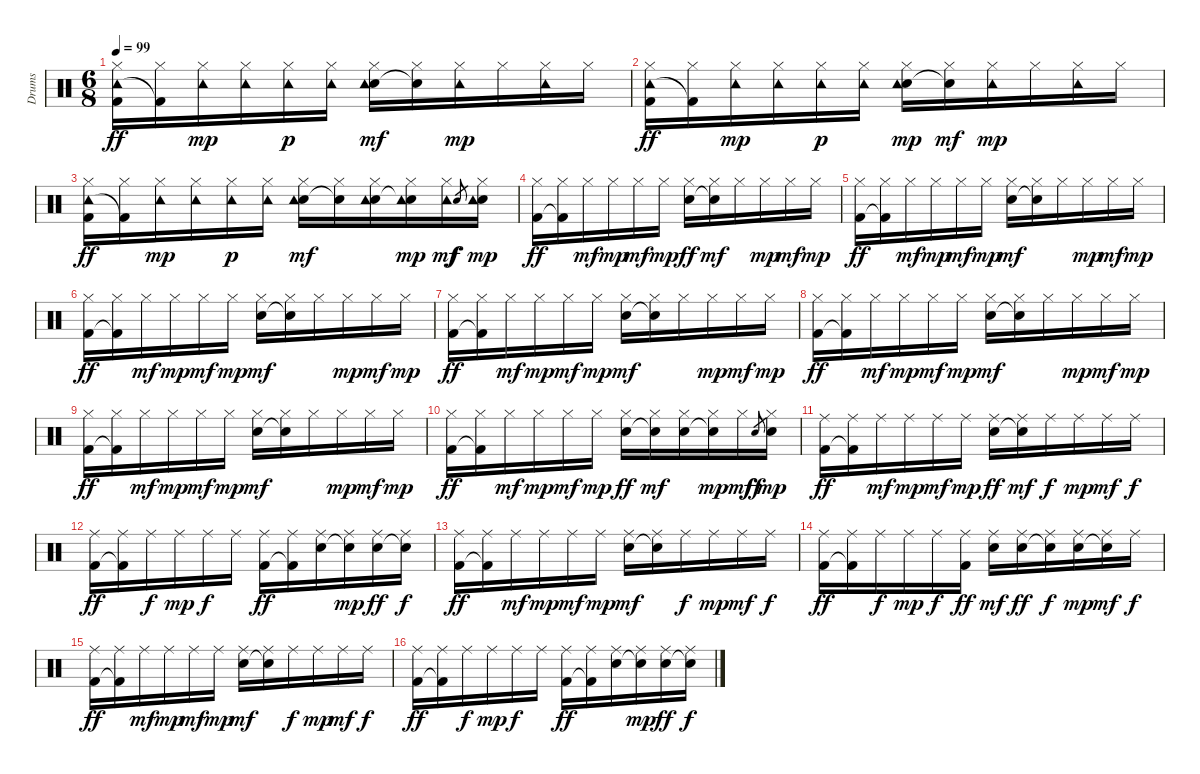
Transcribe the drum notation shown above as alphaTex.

\track ("Drums" "Drums") {instrument percussion}
\staff {score}
\articulation defaults
\ts (6 8)
\tempo 99
\clef neutral
\ks c
("Hi-Hat (closed)" "Tambourine (hit)" "Kick (hit) 2").16{dy ff} ("Hi-Hat (closed)" "Kick (hit) 2"{t}).16 ("Hi-Hat (closed)" "Tambourine (hit)").16{dy mp} ("Hi-Hat (closed)" "Tambourine (hit)").16 ("Hi-Hat (closed)" "Tambourine (hit)").16{dy p} ("Hi-Hat (closed)" "Tambourine (hit)").16 ("Hi-Hat (closed)" "Snare (hit) 2" "Tambourine (hit)").16{dy mf} ("Hi-Hat (closed)" "Snare (hit) 2"{t}).16 ("Hi-Hat (closed)" "Tambourine (hit)").16{dy mp} "Hi-Hat (closed)".16 ("Hi-Hat (closed)" "Tambourine (hit)").16 "Hi-Hat (closed)".16 |
("Hi-Hat (closed)" "Tambourine (hit)" "Kick (hit) 2").16{dy ff} ("Hi-Hat (closed)" "Kick (hit) 2"{t}).16 ("Hi-Hat (closed)" "Tambourine (hit)").16{dy mp} ("Hi-Hat (closed)" "Tambourine (hit)").16 ("Hi-Hat (closed)" "Tambourine (hit)").16{dy p} ("Hi-Hat (closed)" "Tambourine (hit)").16 ("Hi-Hat (closed)" "Snare (hit) 2" "Tambourine (hit)").16{dy mp} ("Hi-Hat (closed)" "Snare (hit) 2"{t}).16{dy mf} ("Hi-Hat (closed)" "Tambourine (hit)").16{dy mp} "Hi-Hat (closed)".16 ("Hi-Hat (closed)" "Tambourine (hit)").16 "Hi-Hat (closed)".16 |
("Hi-Hat (closed)" "Tambourine (hit)" "Kick (hit) 2").16{dy ff} ("Hi-Hat (closed)" "Kick (hit) 2"{t}).16 ("Hi-Hat (closed)" "Tambourine (hit)").16{dy mp} ("Hi-Hat (closed)" "Tambourine (hit)").16 ("Hi-Hat (closed)" "Tambourine (hit)").16{dy p} ("Hi-Hat (closed)" "Tambourine (hit)").16 ("Hi-Hat (closed)" "Snare (hit) 2" "Tambourine (hit)").16{dy mf} ("Hi-Hat (closed)" "Snare (hit) 2"{t}).16 ("Hi-Hat (closed)" "Snare (hit) 2" "Tambourine (hit)").16 ("Hi-Hat (closed)" "Snare (hit) 2"{t} "Tambourine (hit)").16{dy mp} ("Hi-Hat (closed)" "Tambourine (hit)").16{dy mf} "Electric Snare (hit)".8{gr dy f} ("Hi-Hat (closed)" "Electric Snare (hit)" "Tambourine (hit)").16{dy mp} |
("Hi-Hat (closed)" "Kick (hit) 2").16{dy ff} ("Hi-Hat (closed)" "Kick (hit) 2"{t}).16 "Hi-Hat (closed)".16{dy mf} "Hi-Hat (closed)".16{dy mp} "Hi-Hat (closed)".16{dy mf} "Hi-Hat (closed)".16{dy mp} ("Hi-Hat (closed)" "Electric Snare (hit)").16{dy ff} ("Hi-Hat (closed)" "Snare (hit) 2"{t}).16{dy mf} "Hi-Hat (closed)".16 "Hi-Hat (closed)".16{dy mp} "Hi-Hat (closed)".16{dy mf} "Hi-Hat (closed)".16{dy mp} |
("Hi-Hat (closed)" "Kick (hit) 2").16{dy ff} ("Hi-Hat (closed)" "Kick (hit) 2"{t}).16 "Hi-Hat (closed)".16{dy mf} "Hi-Hat (closed)".16{dy mp} "Hi-Hat (closed)".16{dy mf} "Hi-Hat (closed)".16{dy mp} ("Hi-Hat (closed)" "Snare (hit) 2").16{dy mf} ("Hi-Hat (closed)" "Snare (hit) 2"{t}).16 "Hi-Hat (closed)".16 "Hi-Hat (closed)".16{dy mp} "Hi-Hat (closed)".16{dy mf} "Hi-Hat (closed)".16{dy mp} |
("Hi-Hat (closed)" "Kick (hit) 2").16{dy ff} ("Hi-Hat (closed)" "Kick (hit) 2"{t}).16 "Hi-Hat (closed)".16{dy mf} "Hi-Hat (closed)".16{dy mp} "Hi-Hat (closed)".16{dy mf} "Hi-Hat (closed)".16{dy mp} ("Hi-Hat (closed)" "Snare (hit) 2").16{dy mf} ("Hi-Hat (closed)" "Snare (hit) 2"{t}).16 "Hi-Hat (closed)".16 "Hi-Hat (closed)".16{dy mp} "Hi-Hat (closed)".16{dy mf} "Hi-Hat (closed)".16{dy mp} |
("Hi-Hat (closed)" "Kick (hit) 2").16{dy ff} ("Hi-Hat (closed)" "Kick (hit) 2"{t}).16 "Hi-Hat (closed)".16{dy mf} "Hi-Hat (closed)".16{dy mp} "Hi-Hat (closed)".16{dy mf} "Hi-Hat (closed)".16{dy mp} ("Hi-Hat (closed)" "Snare (hit) 2").16{dy mf} ("Hi-Hat (closed)" "Snare (hit) 2"{t}).16 "Hi-Hat (closed)".16 "Hi-Hat (closed)".16{dy mp} "Hi-Hat (closed)".16{dy mf} "Hi-Hat (closed)".16{dy mp} |
("Hi-Hat (closed)" "Kick (hit) 2").16{dy ff} ("Hi-Hat (closed)" "Kick (hit) 2"{t}).16 "Hi-Hat (closed)".16{dy mf} "Hi-Hat (closed)".16{dy mp} "Hi-Hat (closed)".16{dy mf} "Hi-Hat (closed)".16{dy mp} ("Hi-Hat (closed)" "Snare (hit) 2").16{dy mf} ("Hi-Hat (closed)" "Snare (hit) 2"{t}).16 "Hi-Hat (closed)".16 "Hi-Hat (closed)".16{dy mp} "Hi-Hat (closed)".16{dy mf} "Hi-Hat (closed)".16{dy mp} |
("Hi-Hat (closed)" "Kick (hit) 2").16{dy ff} ("Hi-Hat (closed)" "Kick (hit) 2"{t}).16 "Hi-Hat (closed)".16{dy mf} "Hi-Hat (closed)".16{dy mp} "Hi-Hat (closed)".16{dy mf} "Hi-Hat (closed)".16{dy mp} ("Hi-Hat (closed)" "Snare (hit) 2").16{dy mf} ("Hi-Hat (closed)" "Snare (hit) 2"{t}).16 "Hi-Hat (closed)".16 "Hi-Hat (closed)".16{dy mp} "Hi-Hat (closed)".16{dy mf} "Hi-Hat (closed)".16{dy mp} |
("Hi-Hat (closed)" "Kick (hit) 2").16{dy ff} ("Hi-Hat (closed)" "Kick (hit) 2"{t}).16 "Hi-Hat (closed)".16{dy mf} "Hi-Hat (closed)".16{dy mp} "Hi-Hat (closed)".16{dy mf} "Hi-Hat (closed)".16{dy mp} ("Hi-Hat (closed)" "Electric Snare (hit)").16{dy ff} ("Hi-Hat (closed)" "Snare (hit) 2"{t}).16{dy mf} ("Hi-Hat (closed)" "Electric Snare (hit)").16 ("Hi-Hat (closed)" "Snare (hit) 2"{t}).16{dy mp} "Hi-Hat (closed)".16{dy mf} "Electric Snare (hit)".8{gr dy ff} ("Hi-Hat (closed)" "Electric Snare (hit)").16{dy mp} |
("Ride (middle)" "Kick (hit) 2").16{dy ff} ("Ride (middle)" "Kick (hit) 2"{t}).16 "Ride (middle)".16{dy mf} "Ride (middle)".16{dy mp} "Ride (middle)".16{dy mf} "Ride (middle)".16{dy mp} ("Ride (middle)" "Electric Snare (hit)").16{dy ff} ("Ride (middle)" "Snare (hit) 2"{t}).16{dy mf} "Ride (middle)".16{dy f} "Ride (middle)".16{dy mp} "Ride (middle)".16{dy mf} "Ride (middle)".16{dy f} |
("Ride (middle)" "Kick (hit) 2").16{dy ff} ("Ride (middle)" "Kick (hit) 2"{t}).16 "Ride (middle)".16{dy f} "Ride (middle)".16{dy mp} "Ride (middle)".16{dy f} "Ride (middle)".16 ("Ride (middle)" "Kick (hit) 2").16{dy ff} ("Ride (middle)" "Kick (hit) 2"{t}).16 ("Ride (middle)" "Electric Snare (hit)").16 ("Ride (middle)" "Snare (hit) 2"{t}).16{dy mp} ("Ride (middle)" "Electric Snare (hit)").16{dy ff} ("Ride (middle)" "Electric Snare (hit)"{t}).16{dy f} |
("Ride (middle)" "Kick (hit) 2").16{dy ff} ("Ride (middle)" "Kick (hit) 2"{t}).16 "Ride (middle)".16{dy mf} "Ride (middle)".16{dy mp} "Ride (middle)".16{dy mf} "Ride (middle)".16{dy mp} ("Ride (middle)" "Snare (hit) 2").16{dy mf} ("Ride (middle)" "Snare (hit) 2"{t}).16 "Ride (middle)".16{dy f} "Ride (middle)".16{dy mp} "Ride (middle)".16{dy mf} "Ride (middle)".16{dy f} |
("Ride (middle)" "Kick (hit) 2").16{dy ff} ("Ride (middle)" "Kick (hit) 2"{t}).16 "Ride (middle)".16{dy f} "Ride (middle)".16{dy mp} "Ride (middle)".16{dy f} ("Ride (middle)" "Kick (hit) 2").16{dy ff} ("Ride (middle)" "Electric Snare (hit)").16{dy mf} ("Ride (middle)" "Electric Snare (hit)").16{dy ff} ("Ride (middle)" "Electric Snare (hit)"{t}).16{dy f} ("Ride (middle)" "Electric Snare (hit)").16{dy mp} ("Ride (middle)" "Electric Snare (hit)"{t}).16{dy mf} "Ride (middle)".16{dy f} |
("Ride (middle)" "Kick (hit) 2").16{dy ff} ("Ride (middle)" "Kick (hit) 2"{t}).16 "Ride (middle)".16{dy mf} "Ride (middle)".16{dy mp} "Ride (middle)".16{dy mf} "Ride (middle)".16{dy mp} ("Ride (middle)" "Snare (hit) 2").16{dy mf} ("Ride (middle)" "Snare (hit) 2"{t}).16 "Ride (middle)".16{dy f} "Ride (middle)".16{dy mp} "Ride (middle)".16{dy mf} "Ride (middle)".16{dy f} |
("Ride (middle)" "Kick (hit) 2").16{dy ff} ("Ride (middle)" "Kick (hit) 2"{t}).16 "Ride (middle)".16{dy f} "Ride (middle)".16{dy mp} "Ride (middle)".16{dy f} "Ride (middle)".16 ("Ride (middle)" "Kick (hit) 2").16{dy ff} ("Ride (middle)" "Kick (hit) 2"{t}).16 ("Ride (middle)" "Electric Snare (hit)").16 ("Ride (middle)" "Snare (hit) 2"{t}).16{dy mp} ("Ride (middle)" "Electric Snare (hit)").16{dy ff} ("Ride (middle)" "Electric Snare (hit)"{t}).16{dy f}
